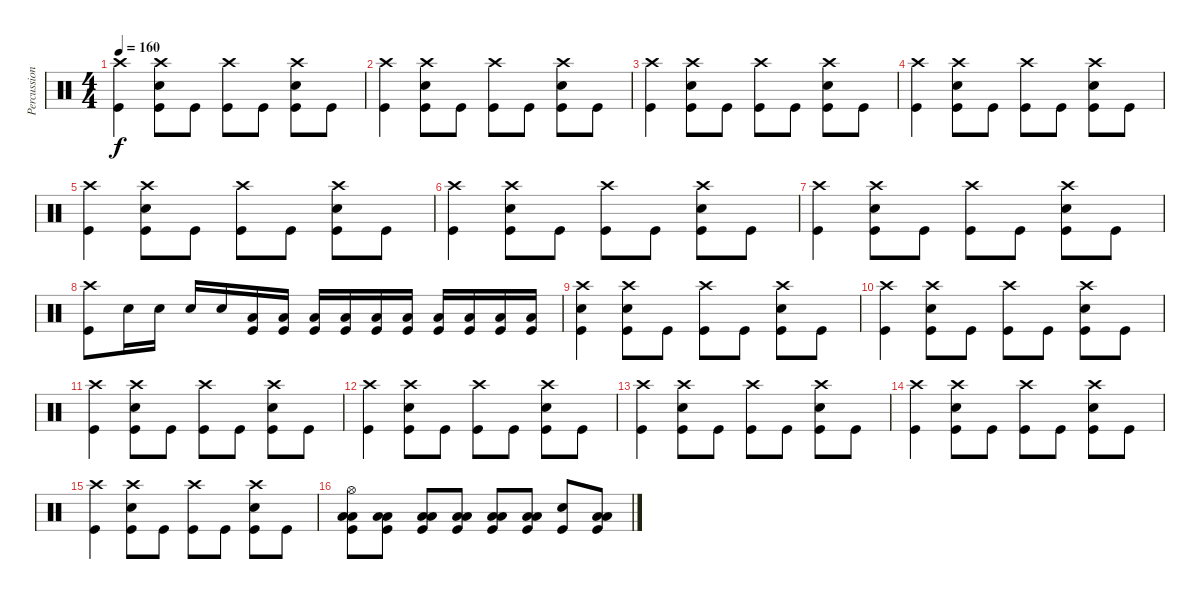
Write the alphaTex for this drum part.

\track ("Percussions" "Percussion") {instrument percussion}
\staff {score}
\articulation defaults
\ts (4 4)
\tempo 160
\clef neutral
\ks c
("Crash high (hit)" "Kick (hit)").4{dy f} ("Crash high (hit)" "Snare (hit) 2" "Kick (hit)").8 "Kick (hit)".8 ("Crash high (hit)" "Kick (hit)").8 "Kick (hit)".8 ("Crash high (hit)" "Snare (hit) 2" "Kick (hit)").8 "Kick (hit)".8 |
("Crash high (hit)" "Kick (hit)").4 ("Crash high (hit)" "Snare (hit) 2" "Kick (hit)").8 "Kick (hit)".8 ("Crash high (hit)" "Kick (hit)").8 "Kick (hit)".8 ("Crash high (hit)" "Snare (hit) 2" "Kick (hit)").8 "Kick (hit)".8 |
("Crash high (hit)" "Kick (hit)").4 ("Crash high (hit)" "Snare (hit) 2" "Kick (hit)").8 "Kick (hit)".8 ("Crash high (hit)" "Kick (hit)").8 "Kick (hit)".8 ("Crash high (hit)" "Snare (hit) 2" "Kick (hit)").8 "Kick (hit)".8 |
("Crash high (hit)" "Kick (hit)").4 ("Crash high (hit)" "Snare (hit) 2" "Kick (hit)").8 "Kick (hit)".8 ("Crash high (hit)" "Kick (hit)").8 "Kick (hit)".8 ("Crash high (hit)" "Snare (hit) 2" "Kick (hit)").8 "Kick (hit)".8 |
("Crash high (hit)" "Kick (hit)").4 ("Crash high (hit)" "Snare (hit) 2" "Kick (hit)").8 "Kick (hit)".8 ("Crash high (hit)" "Kick (hit)").8 "Kick (hit)".8 ("Crash high (hit)" "Snare (hit) 2" "Kick (hit)").8 "Kick (hit)".8 |
("Crash high (hit)" "Kick (hit)").4 ("Crash high (hit)" "Snare (hit) 2" "Kick (hit)").8 "Kick (hit)".8 ("Crash high (hit)" "Kick (hit)").8 "Kick (hit)".8 ("Crash high (hit)" "Snare (hit) 2" "Kick (hit)").8 "Kick (hit)".8 |
("Crash high (hit)" "Kick (hit)").4 ("Crash high (hit)" "Snare (hit) 2" "Kick (hit)").8 "Kick (hit)".8 ("Crash high (hit)" "Kick (hit)").8 "Kick (hit)".8 ("Crash high (hit)" "Snare (hit) 2" "Kick (hit)").8 "Kick (hit)".8 |
("Crash high (hit)" "Kick (hit)").8 "Snare (hit) 2".16 "Snare (hit) 2".16 "Snare (hit) 2".16 "Snare (hit) 2".16 ("Low Tom (hit)" "Kick (hit)").16 ("Low Tom (hit)" "Kick (hit)").16 ("Low Tom (hit)" "Kick (hit)").16 ("Low Tom (hit)" "Kick (hit)").16 ("Low Tom (hit)" "Kick (hit)").16 ("Low Tom (hit)" "Kick (hit)").16 ("Low Tom (hit)" "Kick (hit)").16 ("Low Tom (hit)" "Kick (hit)").16 ("Low Tom (hit)" "Kick (hit)").16 ("Low Tom (hit)" "Kick (hit)").16 |
("Crash high (hit)" "Snare (hit) 2" "Kick (hit)").4 ("Crash high (hit)" "Snare (hit) 2" "Kick (hit)").8 "Kick (hit)".8 ("Crash high (hit)" "Kick (hit)").8 "Kick (hit)".8 ("Crash high (hit)" "Snare (hit) 2" "Kick (hit)").8 "Kick (hit)".8 |
("Crash high (hit)" "Kick (hit)").4 ("Crash high (hit)" "Snare (hit) 2" "Kick (hit)").8 "Kick (hit)".8 ("Crash high (hit)" "Kick (hit)").8 "Kick (hit)".8 ("Crash high (hit)" "Snare (hit) 2" "Kick (hit)").8 "Kick (hit)".8 |
("Crash high (hit)" "Kick (hit)").4 ("Crash high (hit)" "Snare (hit) 2" "Kick (hit)").8 "Kick (hit)".8 ("Crash high (hit)" "Kick (hit)").8 "Kick (hit)".8 ("Crash high (hit)" "Snare (hit) 2" "Kick (hit)").8 "Kick (hit)".8 |
("Crash high (hit)" "Kick (hit)").4 ("Crash high (hit)" "Snare (hit) 2" "Kick (hit)").8 "Kick (hit)".8 ("Crash high (hit)" "Kick (hit)").8 "Kick (hit)".8 ("Crash high (hit)" "Snare (hit) 2" "Kick (hit)").8 "Kick (hit)".8 |
("Crash high (hit)" "Kick (hit)").4 ("Crash high (hit)" "Snare (hit) 2" "Kick (hit)").8 "Kick (hit)".8 ("Crash high (hit)" "Kick (hit)").8 "Kick (hit)".8 ("Crash high (hit)" "Snare (hit) 2" "Kick (hit)").8 "Kick (hit)".8 |
("Crash high (hit)" "Kick (hit)").4 ("Crash high (hit)" "Snare (hit) 2" "Kick (hit)").8 "Kick (hit)".8 ("Crash high (hit)" "Kick (hit)").8 "Kick (hit)".8 ("Crash high (hit)" "Snare (hit) 2" "Kick (hit)").8 "Kick (hit)".8 |
("Crash high (hit)" "Kick (hit)").4 ("Crash high (hit)" "Snare (hit) 2" "Kick (hit)").8 "Kick (hit)".8 ("Crash high (hit)" "Kick (hit)").8 "Kick (hit)".8 ("Crash high (hit)" "Snare (hit) 2" "Kick (hit)").8 "Kick (hit)".8 |
("Low Floor Tom (hit)" "Low Floor Tom (hit)" "Hi-Hat (open)" "Kick (hit)").8 ("Low Floor Tom (hit)" "Low Tom (hit)" "Kick (hit)").8 ("Low Floor Tom (hit)" "Low Tom (hit)" "Kick (hit)").8 ("Low Floor Tom (hit)" "Low Tom (hit)" "Kick (hit)").8 ("Low Floor Tom (hit)" "Low Tom (hit)" "Kick (hit)").8 ("Low Floor Tom (hit)" "Low Tom (hit)" "Kick (hit)").8 ("Snare (hit) 2" "Kick (hit)").8 ("Low Floor Tom (hit)" "Low Tom (hit)" "Kick (hit)").8
